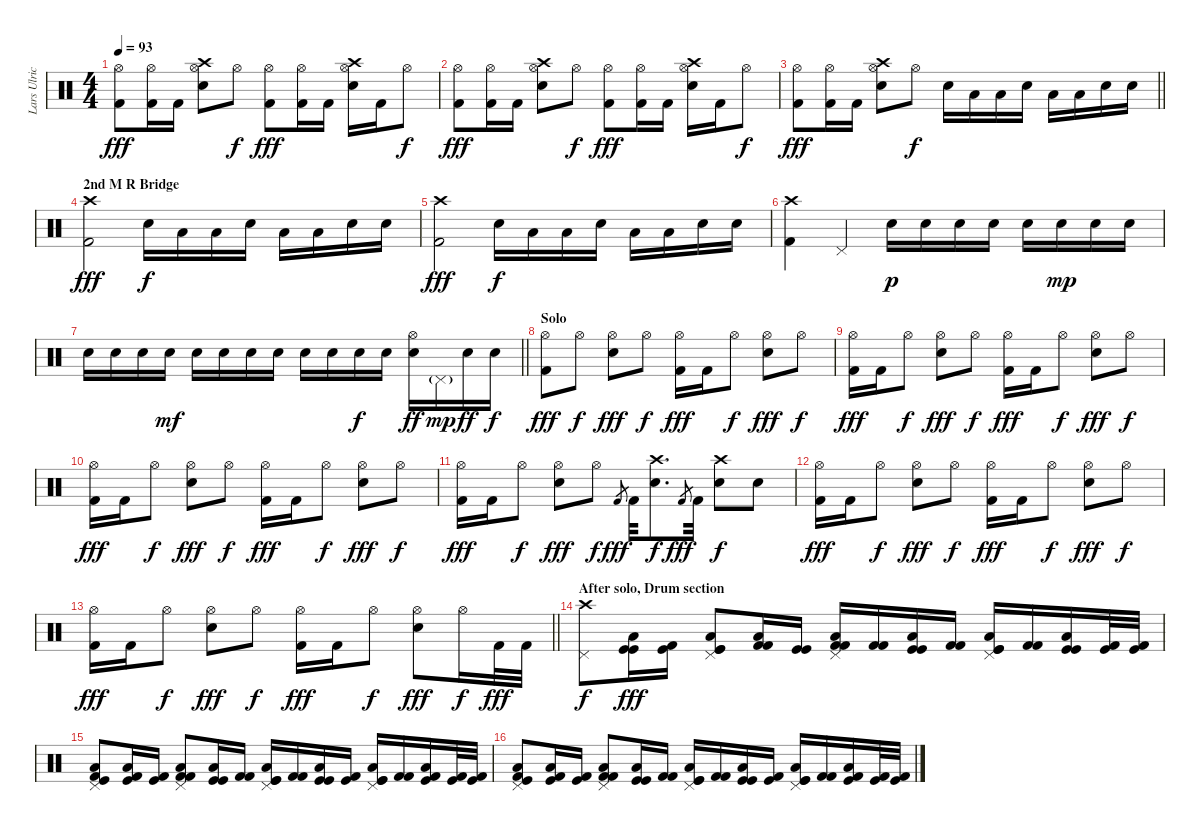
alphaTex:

\track ("Lars Ulrich" "Lars Ulric") {instrument percussion}
\staff {score}
\articulation defaults
\ts (4 4)
\tempo 93
\clef neutral
\ks c
("Hi-Hat (open)" "Kick (hit) 2").8{dy fff} ("Hi-Hat (open)" "Kick (hit) 2").16 "Kick (hit) 2".16 ("Crash high (hit)" "Hi-Hat (open)" "Snare (hit) 2").8 "Hi-Hat (open)".8{dy f} ("Hi-Hat (open)" "Kick (hit) 2").8{dy fff} ("Hi-Hat (open)" "Kick (hit) 2").16 "Kick (hit) 2".16 ("Crash high (hit)" "Hi-Hat (open)" "Snare (hit) 2").16 "Kick (hit) 2".16 "Hi-Hat (open)".8{dy f} |
("Hi-Hat (open)" "Kick (hit) 2").8{dy fff} ("Hi-Hat (open)" "Kick (hit) 2").16 "Kick (hit) 2".16 ("Crash high (hit)" "Hi-Hat (open)" "Snare (hit) 2").8 "Hi-Hat (open)".8{dy f} ("Hi-Hat (open)" "Kick (hit) 2").8{dy fff} ("Hi-Hat (open)" "Kick (hit) 2").16 "Kick (hit) 2".16 ("Crash high (hit)" "Hi-Hat (open)" "Snare (hit) 2").16 "Kick (hit) 2".16 "Hi-Hat (open)".8{dy f} |
\barLineRight lightlight
("Hi-Hat (open)" "Kick (hit) 2").8{dy fff} ("Hi-Hat (open)" "Kick (hit) 2").16 "Kick (hit) 2".16 ("Crash high (hit)" "Hi-Hat (open)" "Snare (hit) 2").8 "Hi-Hat (open)".8{dy f} "Snare (hit) 2".16 "Low Tom (hit)".16 "Low Floor Tom (hit)".16 "Snare (hit) 2".16 "Low Tom (hit)".16 "Low Floor Tom (hit)".16 "Snare (hit) 2".16 "Snare (hit) 2".16 |
\section ("" "2nd M R Bridge ")
("Crash high (hit)" "Kick (hit) 2").2{dy fff} "Snare (hit) 2".16{dy f} "Low Tom (hit)".16 "Low Floor Tom (hit)".16 "Snare (hit) 2".16 "Low Tom (hit)".16 "Low Floor Tom (hit)".16 "Snare (hit) 2".16 "Snare (hit) 2".16 |
("Crash high (hit)" "Kick (hit) 2").2{dy fff} "Snare (hit) 2".16{dy f} "Low Tom (hit)".16 "Low Floor Tom (hit)".16 "Snare (hit) 2".16 "Low Tom (hit)".16 "Low Floor Tom (hit)".16 "Snare (hit) 2".16 "Snare (hit) 2".16 |
("Crash high (hit)" "Kick (hit) 2").4 "Pedal Hi-Hat (hit)".4 "Snare (hit) 2".16{dy p} "Snare (hit) 2".16 "Snare (hit) 2".16 "Snare (hit) 2".16 "Snare (hit) 2".16 "Snare (hit) 2".16{dy mp} "Snare (hit) 2".16 "Snare (hit) 2".16 |
\barLineRight lightlight "Snare (hit) 2".16 "Snare (hit) 2".16 "Snare (hit) 2".16 "Snare (hit) 2".16{dy mf} "Snare (hit) 2".16 "Snare (hit) 2".16 "Snare (hit) 2".16 "Snare (hit) 2".16 "Snare (hit) 2".16 "Snare (hit) 2".16 "Snare (hit) 2".16{dy f} "Snare (hit) 2".16
("Hi-Hat (open)" "Snare (hit) 2").16{dy ff} "Pedal Hi-Hat (hit)"{g}.16{dy mp} "Snare (hit) 2".16{dy ff} "Snare (hit) 2".16{dy f} |
\section ("" "Solo")
("Hi-Hat (open)" "Kick (hit) 2").8{dy fff} "Hi-Hat (open)".8{dy f} ("Hi-Hat (open)" "Snare (hit) 2").8{dy fff} "Hi-Hat (open)".8{dy f} ("Hi-Hat (open)" "Kick (hit) 2").16{dy fff} "Kick (hit) 2".16 "Hi-Hat (open)".8{dy f} ("Hi-Hat (open)" "Snare (hit) 2").8{dy fff} "Hi-Hat (open)".8{dy f} |
("Hi-Hat (open)" "Kick (hit) 2").16{dy fff} "Kick (hit) 2".16 "Hi-Hat (open)".8{dy f} ("Hi-Hat (open)" "Snare (hit) 2").8{dy fff} "Hi-Hat (open)".8{dy f} ("Hi-Hat (open)" "Kick (hit) 2").16{dy fff} "Kick (hit) 2".16 "Hi-Hat (open)".8{dy f} ("Hi-Hat (open)" "Snare (hit) 2").8{dy fff} "Hi-Hat (open)".8{dy f} |
("Hi-Hat (open)" "Kick (hit) 2").16{dy fff} "Kick (hit) 2".16 "Hi-Hat (open)".8{dy f} ("Hi-Hat (open)" "Snare (hit) 2").8{dy fff} "Hi-Hat (open)".8{dy f} ("Hi-Hat (open)" "Kick (hit) 2").16{dy fff} "Kick (hit) 2".16 "Hi-Hat (open)".8{dy f} ("Hi-Hat (open)" "Snare (hit) 2").8{dy fff} "Hi-Hat (open)".8{dy f} |
("Hi-Hat (open)" "Kick (hit) 2").16{dy fff} "Kick (hit) 2".16 "Hi-Hat (open)".8{dy f} ("Hi-Hat (open)" "Snare (hit) 2").8{dy fff} "Hi-Hat (open)".8{dy f} "Kick (hit) 2".8{gr dy fff} "Kick (hit) 2".32 ("Crash high (hit)" "Snare (hit) 2").8{d dy f} "Kick (hit) 2".8{gr dy fff} "Kick (hit) 2".32 ("Crash high (hit)" "Snare (hit) 2").8{dy f} "Snare (hit) 2".8 |
("Hi-Hat (open)" "Kick (hit) 2").16{dy fff} "Kick (hit) 2".16 "Hi-Hat (open)".8{dy f} ("Hi-Hat (open)" "Snare (hit) 2").8{dy fff} "Hi-Hat (open)".8{dy f} ("Hi-Hat (open)" "Kick (hit) 2").16{dy fff} "Kick (hit) 2".16 "Hi-Hat (open)".8{dy f} ("Hi-Hat (open)" "Snare (hit) 2").8{dy fff} "Hi-Hat (open)".8{dy f} |
\barLineRight lightlight
("Hi-Hat (open)" "Kick (hit) 2").16{dy fff} "Kick (hit) 2".16 "Hi-Hat (open)".8{dy f} ("Hi-Hat (open)" "Snare (hit) 2").8{dy fff} "Hi-Hat (open)".8{dy f} ("Hi-Hat (open)" "Kick (hit) 2").16{dy fff} "Kick (hit) 2".16 "Hi-Hat (open)".8{dy f} ("Hi-Hat (open)" "Snare (hit) 2").8{dy fff} "Hi-Hat (open)".16{dy f} "Kick (hit) 2".32{dy fff} "Kick (hit) 2".32 |
\section ("" "After solo, Drum section")
("Crash high (hit)" "Pedal Hi-Hat (hit)").8{dy f} ("Low Floor Tom (hit)" "Kick (hit)" "Kick (hit)").16{dy fff} ("Kick (hit)" "Kick (hit) 2").16 ("Pedal Hi-Hat (hit)" "Low Floor Tom (hit)" "Kick (hit)" "Kick (hit)").8 ("Low Floor Tom (hit)" "Kick (hit) 2" "Kick (hit) 2").16 ("Kick (hit)" "Kick (hit)").16 ("Pedal Hi-Hat (hit)" "Low Floor Tom (hit)" "Kick (hit) 2" "Kick (hit) 2").16 ("Kick (hit) 2" "Kick (hit) 2").16 ("Low Floor Tom (hit)" "Kick (hit)" "Kick (hit)").16 ("Kick (hit) 2" "Kick (hit) 2").16 ("Pedal Hi-Hat (hit)" "Low Floor Tom (hit)" "Kick (hit)" "Kick (hit)").16 ("Kick (hit) 2" "Kick (hit) 2").16 ("Low Floor Tom (hit)" "Kick (hit)" "Kick (hit)").16 ("Kick (hit)" "Kick (hit) 2").32 ("Kick (hit)" "Kick (hit) 2").32 |
("Pedal Hi-Hat (hit)" "Low Floor Tom (hit)" "Kick (hit)" "Kick (hit) 2").8 ("Low Floor Tom (hit)" "Kick (hit)" "Kick (hit) 2").16 ("Kick (hit)" "Kick (hit) 2").16 ("Pedal Hi-Hat (hit)" "Low Floor Tom (hit)" "Kick (hit) 2" "Kick (hit) 2").8 ("Low Floor Tom (hit)" "Kick (hit)" "Kick (hit)").16 ("Kick (hit) 2" "Kick (hit) 2").16 ("Pedal Hi-Hat (hit)" "Low Floor Tom (hit)" "Kick (hit)" "Kick (hit)").16 ("Kick (hit) 2" "Kick (hit) 2").16 ("Low Floor Tom (hit)" "Kick (hit)" "Kick (hit)").16 ("Kick (hit)" "Kick (hit) 2").16 ("Pedal Hi-Hat (hit)" "Low Floor Tom (hit)" "Kick (hit)" "Kick (hit)").16 ("Kick (hit) 2" "Kick (hit) 2").16 ("Low Floor Tom (hit)" "Kick (hit)" "Kick (hit) 2").16 ("Kick (hit)" "Kick (hit) 2").32 ("Kick (hit)" "Kick (hit) 2").32 |
("Pedal Hi-Hat (hit)" "Low Floor Tom (hit)" "Kick (hit)" "Kick (hit) 2").8 ("Low Floor Tom (hit)" "Kick (hit)" "Kick (hit) 2").16 ("Kick (hit)" "Kick (hit) 2").16 ("Pedal Hi-Hat (hit)" "Low Floor Tom (hit)" "Kick (hit) 2" "Kick (hit) 2").8 ("Low Floor Tom (hit)" "Kick (hit)" "Kick (hit)").16 ("Kick (hit) 2" "Kick (hit) 2").16 ("Pedal Hi-Hat (hit)" "Low Floor Tom (hit)" "Kick (hit)" "Kick (hit)").16 ("Kick (hit) 2" "Kick (hit) 2").16 ("Low Floor Tom (hit)" "Kick (hit)" "Kick (hit)").16 ("Kick (hit)" "Kick (hit) 2").16 ("Pedal Hi-Hat (hit)" "Low Floor Tom (hit)" "Kick (hit)" "Kick (hit)").16 ("Kick (hit) 2" "Kick (hit) 2").16 ("Low Floor Tom (hit)" "Kick (hit)" "Kick (hit) 2").16 ("Kick (hit)" "Kick (hit) 2").32 ("Kick (hit)" "Kick (hit) 2").32
